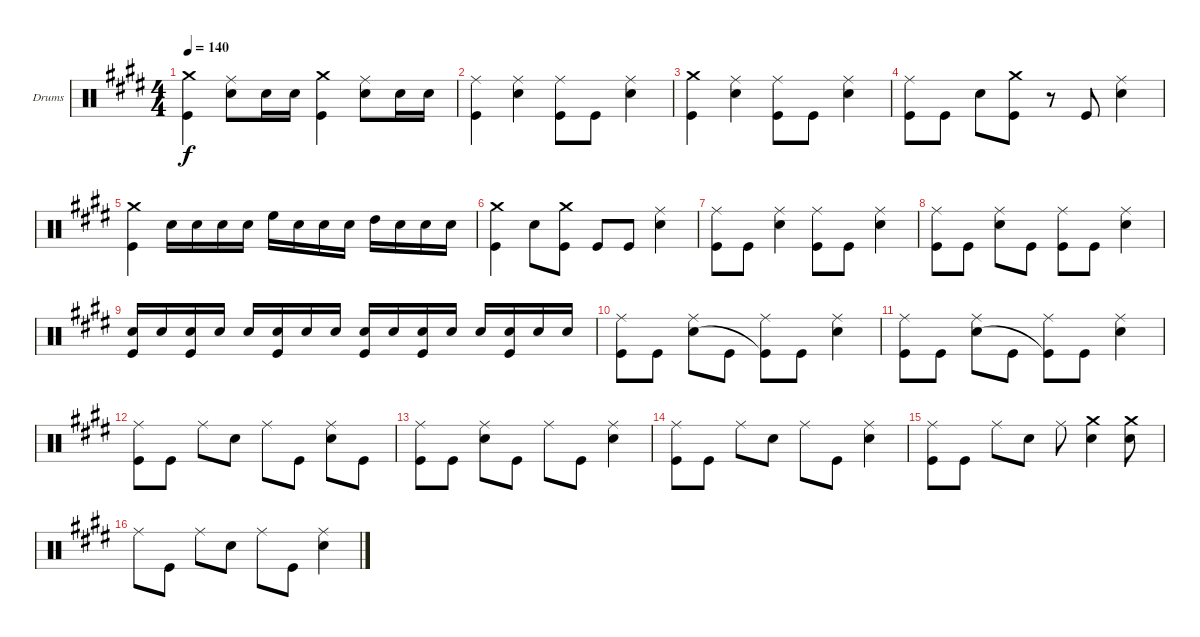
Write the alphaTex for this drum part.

\bracketExtendMode groupsimilarinstruments
\firstSystemTrackNameOrientation horizontal
\otherSystemsTrackNameOrientation horizontal
\track ("Drumkit" "Drums") {instrument percussion}
\staff {score}
\articulation defaults
\ts (4 4)
\tempo 140
\clef neutral
\ks e
("Crash medium (hit)" "Kick (hit)").4{dy f} ("Ride (middle)" "Snare (hit) 2").8 "Snare (hit) 2".16 "Snare (hit) 2".16 ("Crash medium (hit)" "Kick (hit)").4 ("Ride (middle)" "Snare (hit) 2").8 "Snare (hit) 2".16 "Snare (hit) 2".16 |
("Ride (middle)" "Kick (hit)").4 ("Ride (middle)" "Snare (hit) 2").4 ("Ride (middle)" "Kick (hit)").8 "Kick (hit)".8 ("Ride (middle)" "Snare (hit) 2").4 |
("Crash medium (hit)" "Kick (hit)").4 ("Ride (middle)" "Snare (hit) 2").4 ("Ride (middle)" "Kick (hit)").8 "Kick (hit)".8 ("Ride (middle)" "Snare (hit) 2").4 |
("Ride (middle)" "Kick (hit)").8 "Kick (hit)".8 "Snare (hit) 2".8 ("Crash medium (hit)" "Kick (hit)").8 r.8 "Kick (hit)".8 ("Ride (middle)" "Snare (hit) 2").4 |
("Crash medium (hit)" "Kick (hit)").4 "Snare (hit) 2".16 "Snare (hit) 2".16 "Snare (hit) 2".16 "Snare (hit) 2".16 "High Floor Tom (hit)".16 "Snare (hit) 2".16 "Snare (hit) 2".16 "Snare (hit) 2".16 "High Tom (hit)".16 "Snare (hit) 2".16 "Snare (hit) 2".16 "Snare (hit) 2".16 |
("Crash medium (hit)" "Kick (hit)").4 "Snare (hit) 2".8 ("Crash medium (hit)" "Kick (hit)").8 "Kick (hit)".8 "Kick (hit)".8 ("Ride (middle)" "Snare (hit) 2").4 |
("Ride (middle)" "Kick (hit)").8 "Kick (hit)".8 ("Ride (middle)" "Snare (hit) 2").4 ("Ride (middle)" "Kick (hit)").8 "Kick (hit)".8 ("Ride (middle)" "Snare (hit) 2").4 |
("Ride (middle)" "Kick (hit)").8 "Kick (hit)".8 ("Ride (middle)" "Snare (hit) 2").8 "Kick (hit)".8 ("Ride (middle)" "Kick (hit)").8 "Kick (hit)".8 ("Ride (middle)" "Snare (hit) 2").4 |
("Snare (hit) 2" "Kick (hit)").16 "Snare (hit) 2".16 ("Snare (hit) 2" "Kick (hit)").16 "Snare (hit) 2".16 "Snare (hit) 2".16 ("Snare (hit) 2" "Kick (hit)").16 "Snare (hit) 2".16 "Snare (hit) 2".16 ("Snare (hit) 2" "Kick (hit)").16 "Snare (hit) 2".16 ("Snare (hit) 2" "Kick (hit)").16 "Snare (hit) 2".16 "Snare (hit) 2".16 ("Snare (hit) 2" "Kick (hit)").16 "Snare (hit) 2".16 "Snare (hit) 2".16 |
("Ride (middle)" "Kick (hit)").8 "Kick (hit)".8 ("Ride (middle)" "Snare (hit) 2").8 "Kick (hit)".8 ("Ride (middle)" "Kick (hit)"{t}).8 "Kick (hit)".8 ("Ride (middle)" "Snare (hit) 2").4 |
("Ride (middle)" "Kick (hit)").8 "Kick (hit)".8 ("Ride (middle)" "Snare (hit) 2").8 "Kick (hit)".8 ("Ride (middle)" "Kick (hit)"{t}).8 "Kick (hit)".8 ("Ride (middle)" "Snare (hit) 2").4 |
("Ride (middle)" "Kick (hit)").8 "Kick (hit)".8 "Ride (middle)".8 "Snare (hit) 2".8 "Ride (middle)".8 "Kick (hit)".8 ("Ride (middle)" "Snare (hit) 2").8 "Kick (hit)".8 |
("Ride (middle)" "Kick (hit)").8 "Kick (hit)".8 ("Ride (middle)" "Snare (hit) 2").8 "Kick (hit)".8 "Ride (middle)".8 "Kick (hit)".8 ("Ride (middle)" "Snare (hit) 2").4 |
("Ride (middle)" "Kick (hit)").8 "Kick (hit)".8 "Ride (middle)".8 "Snare (hit) 2".8 "Ride (middle)".8 "Kick (hit)".8 ("Ride (middle)" "Snare (hit) 2").4 |
("Ride (middle)" "Kick (hit)").8 "Kick (hit)".8 "Ride (middle)".8 "Snare (hit) 2".8 "Ride (middle)".8 ("Crash medium (hit)" "Snare (hit) 2").4 ("Crash medium (hit)" "Snare (hit) 2").8 |
"Ride (middle)".8 "Kick (hit)".8 "Ride (middle)".8 "Snare (hit) 2".8 "Ride (middle)".8 "Kick (hit)".8 ("Ride (middle)" "Snare (hit) 2").4
